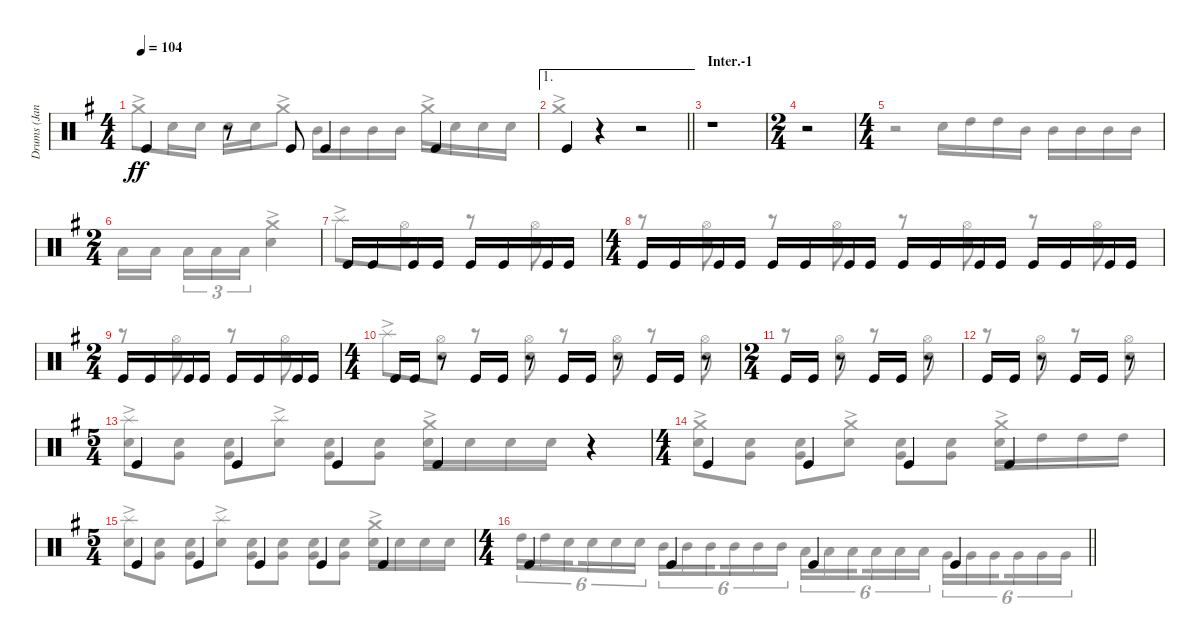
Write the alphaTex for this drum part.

\track ("Drums (Jane)" "Drums (Jan") {instrument percussion}
\staff {score}
\articulation defaults
\voice
\ts (4 4)
\tempo 104
\clef neutral
\ks eminor "Kick (hit)".4{dy ff}
r.8 "Kick (hit)".8 "Kick (hit)".4 "Kick (hit)".4 |
\ae 1
\barLineRight lightlight "Kick (hit)".4
r.4 r.2 |
\section ("" "Inter.-1")
r.1 |
\ts (2 4)
r.2 |
\ts (4 4)
|
\ts (2 4)
|
"Kick (hit)".16 "Kick (hit)".16 "Kick (hit)".16 "Kick (hit)".16 "Kick (hit)".16 "Kick (hit)".16 "Kick (hit)".16 "Kick (hit)".16 |
\ts (4 4)
"Kick (hit)".16 "Kick (hit)".16 "Kick (hit)".16 "Kick (hit)".16 "Kick (hit)".16 "Kick (hit)".16 "Kick (hit)".16 "Kick (hit)".16 "Kick (hit)".16 "Kick (hit)".16 "Kick (hit)".16 "Kick (hit)".16 "Kick (hit)".16 "Kick (hit)".16 "Kick (hit)".16 "Kick (hit)".16 |
\ts (2 4)
"Kick (hit)".16 "Kick (hit)".16 "Kick (hit)".16 "Kick (hit)".16 "Kick (hit)".16 "Kick (hit)".16 "Kick (hit)".16 "Kick (hit)".16 |
\ts (4 4)
"Kick (hit)".16 "Kick (hit)".16 r.8 "Kick (hit)".16 "Kick (hit)".16 r.8 "Kick (hit)".16 "Kick (hit)".16 r.8 "Kick (hit)".16 "Kick (hit)".16 r.8 |
\ts (2 4)
"Kick (hit)".16 "Kick (hit)".16 r.8 "Kick (hit)".16 "Kick (hit)".16 r.8 |
"Kick (hit)".16 "Kick (hit)".16 r.8 "Kick (hit)".16 "Kick (hit)".16 r.8 |
\ts (5 4)
"Kick (hit)".4 "Kick (hit)".4 "Kick (hit)".4 "Kick (hit)".4 r.4 |
\ts (4 4)
"Kick (hit)".4 "Kick (hit)".4 "Kick (hit)".4 "Kick (hit)".4 |
\ts (5 4)
"Kick (hit)".4 "Kick (hit)".4 "Kick (hit)".4 "Kick (hit)".4 "Kick (hit)".4 |
\ts (4 4)
\barLineRight lightlight "Kick (hit)".4 "Kick (hit)".4 "Kick (hit)".4 "Kick (hit)".4
\voice
\clef neutral
\ottava regular
\simile none
\ks eminor "Crash medium (hit)"{ac}.8{dy ff} "Snare (hit) 2".16 "Snare (hit) 2".16 "Snare (hit) 2".16 "Snare (hit) 2".16 "Crash medium (hit)"{ac}.8 "Mid Tom (hit)".16 "Mid Tom (hit)".16 "Mid Tom (hit)".16 "Mid Tom (hit)".16 "Crash medium (hit)"{ac}.16 "Snare (hit) 2".16 "Snare (hit) 2".16 "Snare (hit) 2".16
|
\barLineRight lightlight "Crash medium (hit)"{ac}.1
|
|
|
r.2 "Snare (hit) 2".16 "High Tom (hit)".16 "High Tom (hit)".16 "Mid Tom (hit)".16 "Mid Tom (hit)".16 "Mid Tom (hit)".16 "Mid Tom (hit)".16 "Mid Tom (hit)".16 |
"Low Tom (hit)".16 "Low Tom (hit)".16{beam splitsecondary} "Low Tom (hit)".16{tu (3 2)} "Low Tom (hit)".16{tu (3 2)} "Low Tom (hit)".16{tu (3 2)} ("Snare (hit) 2" "Crash medium (hit)"{ac}).4 |
"Splash (hit)"{ac}.8 ("Hi-Hat (open)" "Snare (hit) 2").8 r.8 ("Hi-Hat (open)" "Snare (hit) 2").8 |
r.8 ("Hi-Hat (open)" "Snare (hit) 2").8 r.8 ("Hi-Hat (open)" "Snare (hit) 2").8 r.8 ("Hi-Hat (open)" "Snare (hit) 2").8 r.8 ("Hi-Hat (open)" "Snare (hit) 2").8 |
r.8 ("Hi-Hat (open)" "Snare (hit) 2").8 r.8 ("Hi-Hat (open)" "Snare (hit) 2").8 |
"Splash (hit)"{ac}.8 ("Hi-Hat (open)" "Snare (hit) 2").8 r.8 ("Hi-Hat (open)" "Snare (hit) 2").8 r.8 ("Hi-Hat (open)" "Snare (hit) 2").8 r.8 ("Hi-Hat (open)" "Snare (hit) 2").8 |
r.8 ("Hi-Hat (open)" "Snare (hit) 2").8 r.8 ("Hi-Hat (open)" "Snare (hit) 2").8 |
r.8 ("Hi-Hat (open)" "Snare (hit) 2").8 r.8 ("Hi-Hat (open)" "Snare (hit) 2").8 |
("Snare (hit) 2" "Splash (hit)"{ac}).8 ("Snare (hit) 2" "Very Low Tom (hit)").8 ("Snare (hit) 2" "Very Low Tom (hit)").8 ("Snare (hit) 2" "Splash (hit)"{ac}).8 ("Snare (hit) 2" "Very Low Tom (hit)").8 ("Snare (hit) 2" "Very Low Tom (hit)").8 ("Snare (hit) 2" "Crash medium (hit)"{ac}).16 "Snare (hit) 2".16 "Snare (hit) 2".16 "Snare (hit) 2".16 r.4 |
("Snare (hit) 2" "Crash medium (hit)"{ac}).8 ("Snare (hit) 2" "Very Low Tom (hit)").8 ("Snare (hit) 2" "Very Low Tom (hit)").8 ("Snare (hit) 2" "Crash medium (hit)"{ac}).8 ("Snare (hit) 2" "Very Low Tom (hit)").8 ("Snare (hit) 2" "Very Low Tom (hit)").8 ("Snare (hit) 2" "Crash medium (hit)"{ac}).16 "High Tom (hit)".16 "High Tom (hit)".16 "High Tom (hit)".16 |
("Snare (hit) 2" "Splash (hit)"{ac}).8 ("Snare (hit) 2" "Very Low Tom (hit)").8 ("Snare (hit) 2" "Very Low Tom (hit)").8 ("Snare (hit) 2" "Splash (hit)"{ac}).8 ("Snare (hit) 2" "Very Low Tom (hit)").8 ("Snare (hit) 2" "Very Low Tom (hit)").8 ("Snare (hit) 2" "Very Low Tom (hit)").8 ("Snare (hit) 2" "Very Low Tom (hit)").8 ("Snare (hit) 2" "Crash medium (hit)"{ac}).16 "Snare (hit) 2".16 "Snare (hit) 2".16 "Snare (hit) 2".16 |
\barLineRight lightlight "High Tom (hit)".16{tu (6 4)} "High Tom (hit)".16{tu (6 4)} "Snare (hit) 2".16{tu (6 4) beam splitsecondary} "Snare (hit) 2".16{tu (6 4)} "Snare (hit) 2".16{tu (6 4)} "Snare (hit) 2".16{tu (6 4)} "Mid Tom (hit)".16{tu (6 4)} "Mid Tom (hit)".16{tu (6 4)} "Mid Tom (hit)".16{tu (6 4) beam splitsecondary} "Mid Tom (hit)".16{tu (6 4)} "Mid Tom (hit)".16{tu (6 4)} "Mid Tom (hit)".16{tu (6 4)} "Low Tom (hit)".16{tu (6 4)} "Low Tom (hit)".16{tu (6 4)} "Low Tom (hit)".16{tu (6 4) beam splitsecondary} "Low Tom (hit)".16{tu (6 4)} "Low Tom (hit)".16{tu (6 4)} "Low Tom (hit)".16{tu (6 4)} "Very Low Tom (hit)".16{tu (6 4)} "Very Low Tom (hit)".16{tu (6 4)} "Very Low Tom (hit)".16{tu (6 4) beam splitsecondary} "Very Low Tom (hit)".16{tu (6 4)} "Very Low Tom (hit)".16{tu (6 4)} "Very Low Tom (hit)".16{tu (6 4)}
